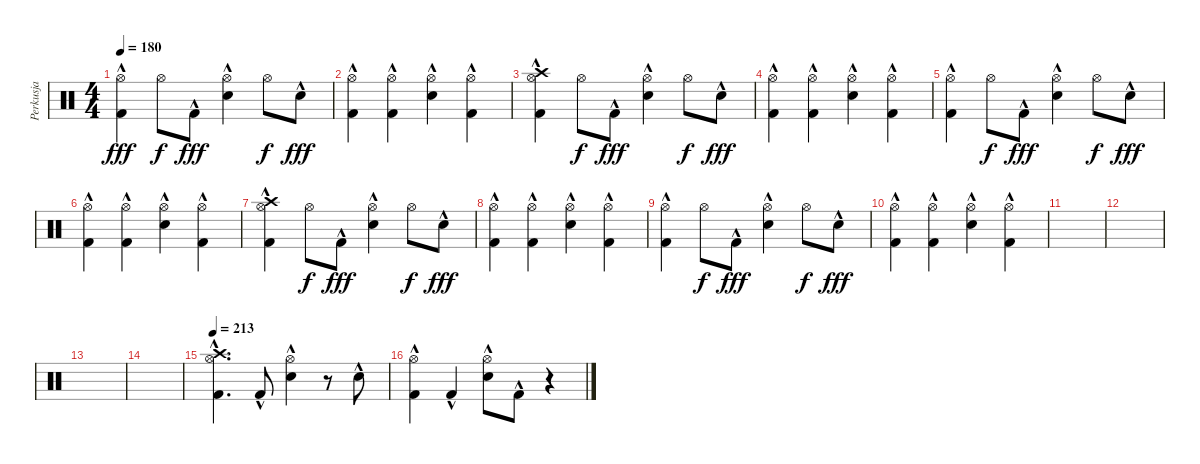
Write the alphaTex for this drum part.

\track ("Perkusja" "Perkusja") {instrument percussion}
\staff {score}
\articulation defaults
\ts (4 4)
\tempo 180
\clef neutral
\ks c
("Hi-Hat (open)" "Kick (hit) 2"{hac}).4{dy fff} "Hi-Hat (open)".8{dy f} "Kick (hit) 2"{hac}.8{dy fff} ("Hi-Hat (open)" "Electric Snare (hit)"{hac}).4 "Hi-Hat (open)".8{dy f} "Electric Snare (hit)"{hac}.8{dy fff} |
("Hi-Hat (open)" "Kick (hit) 2"{hac}).4 ("Hi-Hat (open)" "Kick (hit) 2"{hac}).4 ("Hi-Hat (open)" "Electric Snare (hit)"{hac}).4 ("Hi-Hat (open)" "Kick (hit) 2"{hac}).4 |
("Crash high (hit)" "Hi-Hat (open)" "Kick (hit) 2"{hac}).4 "Hi-Hat (open)".8{dy f} "Kick (hit) 2"{hac}.8{dy fff} ("Hi-Hat (open)" "Electric Snare (hit)"{hac}).4 "Hi-Hat (open)".8{dy f} "Electric Snare (hit)"{hac}.8{dy fff} |
("Hi-Hat (open)" "Kick (hit) 2"{hac}).4 ("Hi-Hat (open)" "Kick (hit) 2"{hac}).4 ("Hi-Hat (open)" "Electric Snare (hit)"{hac}).4 ("Hi-Hat (open)" "Kick (hit) 2"{hac}).4 |
("Hi-Hat (open)" "Kick (hit) 2"{hac}).4 "Hi-Hat (open)".8{dy f} "Kick (hit) 2"{hac}.8{dy fff} ("Hi-Hat (open)" "Electric Snare (hit)"{hac}).4 "Hi-Hat (open)".8{dy f} "Electric Snare (hit)"{hac}.8{dy fff} |
("Hi-Hat (open)" "Kick (hit) 2"{hac}).4 ("Hi-Hat (open)" "Kick (hit) 2"{hac}).4 ("Hi-Hat (open)" "Electric Snare (hit)"{hac}).4 ("Hi-Hat (open)" "Kick (hit) 2"{hac}).4 |
("Crash high (hit)" "Hi-Hat (open)" "Kick (hit) 2"{hac}).4 "Hi-Hat (open)".8{dy f} "Kick (hit) 2"{hac}.8{dy fff} ("Hi-Hat (open)" "Electric Snare (hit)"{hac}).4 "Hi-Hat (open)".8{dy f} "Electric Snare (hit)"{hac}.8{dy fff} |
("Hi-Hat (open)" "Kick (hit) 2"{hac}).4 ("Hi-Hat (open)" "Kick (hit) 2"{hac}).4 ("Hi-Hat (open)" "Electric Snare (hit)"{hac}).4 ("Hi-Hat (open)" "Kick (hit) 2"{hac}).4 |
("Hi-Hat (open)" "Kick (hit) 2"{hac}).4 "Hi-Hat (open)".8{dy f} "Kick (hit) 2"{hac}.8{dy fff} ("Hi-Hat (open)" "Electric Snare (hit)"{hac}).4 "Hi-Hat (open)".8{dy f} "Electric Snare (hit)"{hac}.8{dy fff} |
("Hi-Hat (open)" "Kick (hit) 2"{hac}).4 ("Hi-Hat (open)" "Kick (hit) 2"{hac}).4 ("Hi-Hat (open)" "Electric Snare (hit)"{hac}).4 ("Hi-Hat (open)" "Kick (hit) 2"{hac}).4 |
|
|
|
|
\tempo 213
("Crash high (hit)" "Hi-Hat (open)" "Kick (hit) 2"{hac}).4{d} "Kick (hit) 2"{hac}.8 ("Hi-Hat (open)" "Electric Snare (hit)"{hac}).4 r.8 "Electric Snare (hit)"{hac}.8 |
("Hi-Hat (open)" "Kick (hit) 2"{hac}).4 "Kick (hit) 2"{hac}.4 ("Hi-Hat (open)" "Electric Snare (hit)"{hac}).8 "Kick (hit) 2"{hac}.8 r.4
